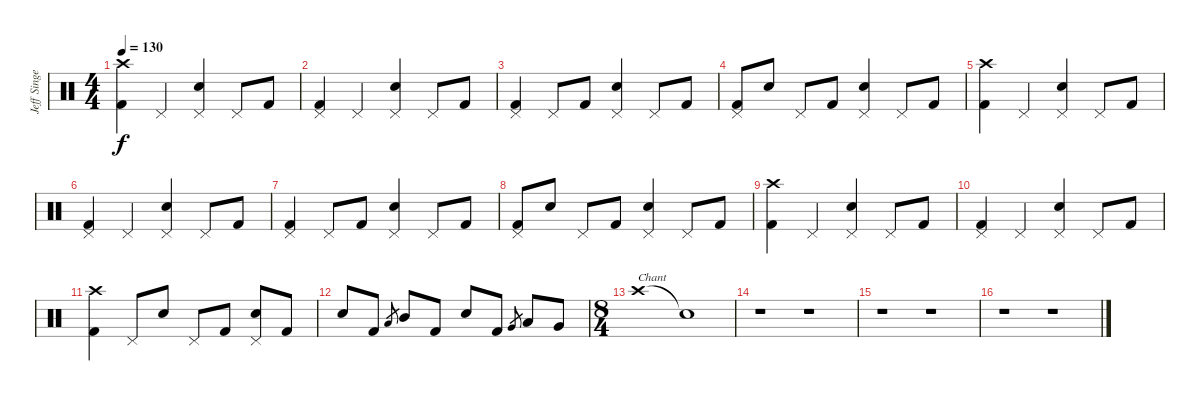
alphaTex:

\track ("Jeff Singer" "Jeff Singe") {instrument percussion}
\staff {score}
\articulation defaults
\ts (4 4)
\tempo 130
\clef neutral
\ks c
("Crash high (hit)" "Kick (hit) 2").4{dy f} "Pedal Hi-Hat (hit)".4 ("Pedal Hi-Hat (hit)" "Snare (hit) 2").4 "Pedal Hi-Hat (hit)".8 "Kick (hit) 2".8 |
("Pedal Hi-Hat (hit)" "Kick (hit) 2").4 "Pedal Hi-Hat (hit)".4 ("Pedal Hi-Hat (hit)" "Snare (hit) 2").4 "Pedal Hi-Hat (hit)".8 "Kick (hit) 2".8 |
("Pedal Hi-Hat (hit)" "Kick (hit) 2").4 "Pedal Hi-Hat (hit)".8 "Kick (hit) 2".8 ("Pedal Hi-Hat (hit)" "Snare (hit) 2").4 "Pedal Hi-Hat (hit)".8 "Kick (hit) 2".8 |
("Pedal Hi-Hat (hit)" "Kick (hit) 2").8 "Snare (hit) 2".8 "Pedal Hi-Hat (hit)".8 "Kick (hit) 2".8 ("Pedal Hi-Hat (hit)" "Snare (hit) 2").4 "Pedal Hi-Hat (hit)".8 "Kick (hit) 2".8 |
("Crash high (hit)" "Kick (hit) 2").4 "Pedal Hi-Hat (hit)".4 ("Pedal Hi-Hat (hit)" "Snare (hit) 2").4 "Pedal Hi-Hat (hit)".8 "Kick (hit) 2".8 |
("Pedal Hi-Hat (hit)" "Kick (hit) 2").4 "Pedal Hi-Hat (hit)".4 ("Pedal Hi-Hat (hit)" "Snare (hit) 2").4 "Pedal Hi-Hat (hit)".8 "Kick (hit) 2".8 |
("Pedal Hi-Hat (hit)" "Kick (hit) 2").4 "Pedal Hi-Hat (hit)".8 "Kick (hit) 2".8 ("Pedal Hi-Hat (hit)" "Snare (hit) 2").4 "Pedal Hi-Hat (hit)".8 "Kick (hit) 2".8 |
("Pedal Hi-Hat (hit)" "Kick (hit) 2").8 "Snare (hit) 2".8 "Pedal Hi-Hat (hit)".8 "Kick (hit) 2".8 ("Pedal Hi-Hat (hit)" "Snare (hit) 2").4 "Pedal Hi-Hat (hit)".8 "Kick (hit) 2".8 |
("Crash high (hit)" "Kick (hit) 2").4 "Pedal Hi-Hat (hit)".4 ("Pedal Hi-Hat (hit)" "Snare (hit) 2").4 "Pedal Hi-Hat (hit)".8 "Kick (hit) 2".8 |
("Pedal Hi-Hat (hit)" "Kick (hit) 2").4 "Pedal Hi-Hat (hit)".4 ("Pedal Hi-Hat (hit)" "Snare (hit) 2").4 "Pedal Hi-Hat (hit)".8 "Kick (hit) 2".8 |
("Crash high (hit)" "Kick (hit) 2").4 "Pedal Hi-Hat (hit)".8 "Snare (hit) 2".8 "Pedal Hi-Hat (hit)".8 "Kick (hit) 2".8 ("Pedal Hi-Hat (hit)" "Snare (hit) 2").8 "Kick (hit) 2".8 |
"Snare (hit) 2".8 "Kick (hit) 2".8 "Low Tom (hit)".8{gr} "Mid Tom (hit)".8 "Kick (hit) 2".8 "Snare (hit) 2".8 "Kick (hit) 2".8 "Very Low Tom (hit)".8{gr} "Low Tom (hit)".8 "Very Low Tom (hit)".8 |
\ts (8 4)
"Crash high (hit)".1{txt "Chant"} "Snare (hit)"{t}.1 |
r.1 r.1 |
r.1 r.1 |
r.1 r.1
